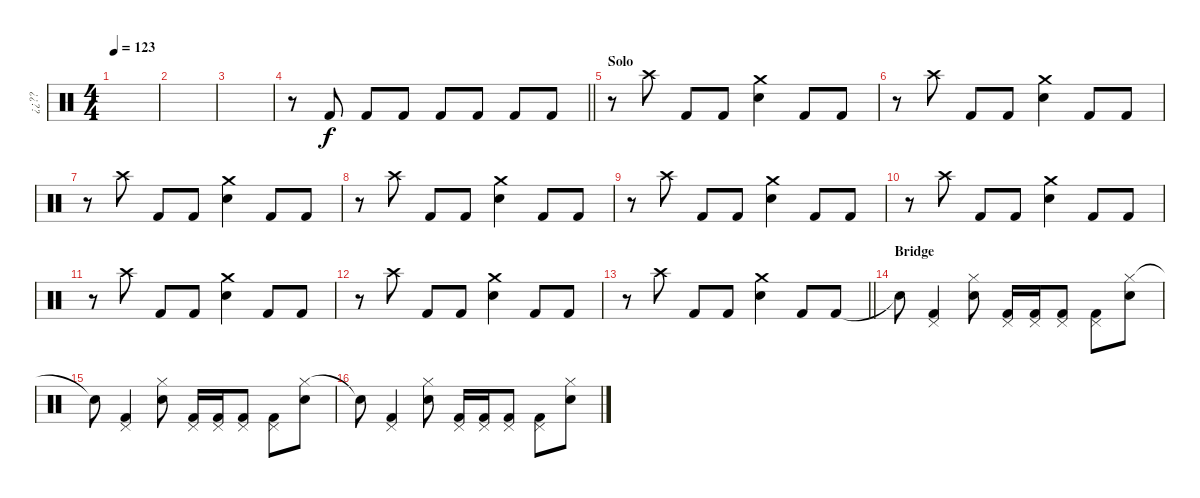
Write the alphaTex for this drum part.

\track ("¿¿??" "¿¿??") {instrument percussion}
\staff {score}
\articulation defaults
\ts (4 4)
\tempo 123
\clef neutral
\ks c
|
|
|
\barLineRight lightlight
r.8 "Kick (hit) 2".8 "Kick (hit) 2".8 "Kick (hit) 2".8 "Kick (hit) 2".8 "Kick (hit) 2".8 "Kick (hit) 2".8 "Kick (hit) 2".8 |
\section ("" "Solo")
r.8 "Crash high (hit)".8 "Kick (hit) 2".8 "Kick (hit) 2".8 ("Crash medium (hit)" "Snare (hit) 2").4 "Kick (hit) 2".8 "Kick (hit) 2".8 |
r.8 "Crash high (hit)".8 "Kick (hit) 2".8 "Kick (hit) 2".8 ("Crash medium (hit)" "Snare (hit) 2").4 "Kick (hit) 2".8 "Kick (hit) 2".8 |
r.8 "Crash high (hit)".8 "Kick (hit) 2".8 "Kick (hit) 2".8 ("Crash medium (hit)" "Snare (hit) 2").4 "Kick (hit) 2".8 "Kick (hit) 2".8 |
r.8 "Crash high (hit)".8 "Kick (hit) 2".8 "Kick (hit) 2".8 ("Crash medium (hit)" "Snare (hit) 2").4 "Kick (hit) 2".8 "Kick (hit) 2".8 |
r.8 "Crash high (hit)".8 "Kick (hit) 2".8 "Kick (hit) 2".8 ("Crash medium (hit)" "Snare (hit) 2").4 "Kick (hit) 2".8 "Kick (hit) 2".8 |
r.8 "Crash high (hit)".8 "Kick (hit) 2".8 "Kick (hit) 2".8 ("Crash medium (hit)" "Snare (hit) 2").4 "Kick (hit) 2".8 "Kick (hit) 2".8 |
r.8 "Crash high (hit)".8 "Kick (hit) 2".8 "Kick (hit) 2".8 ("Crash medium (hit)" "Snare (hit) 2").4 "Kick (hit) 2".8 "Kick (hit) 2".8 |
r.8 "Crash high (hit)".8 "Kick (hit) 2".8 "Kick (hit) 2".8 ("Crash medium (hit)" "Snare (hit) 2").4 "Kick (hit) 2".8 "Kick (hit) 2".8 |
\barLineRight lightlight
r.8 "Crash high (hit)".8 "Kick (hit) 2".8 "Kick (hit) 2".8 ("Crash medium (hit)" "Snare (hit) 2").4 "Kick (hit) 2".8 "Kick (hit) 2".8 |
\section ("" "Bridge")
"Snare (hit)"{t}.8 ("Pedal Hi-Hat (hit)" "Kick (hit) 2").4 ("Hi-Hat (closed)" "Snare (hit) 2").8 ("Pedal Hi-Hat (hit)" "Kick (hit) 2").16 ("Pedal Hi-Hat (hit)" "Kick (hit) 2").16 ("Pedal Hi-Hat (hit)" "Kick (hit) 2").8 ("Pedal Hi-Hat (hit)" "Kick (hit) 2").8 ("Hi-Hat (closed)" "Snare (hit) 2").8 |
"Snare (hit)"{t}.8 ("Pedal Hi-Hat (hit)" "Kick (hit) 2").4 ("Hi-Hat (closed)" "Snare (hit) 2").8 ("Pedal Hi-Hat (hit)" "Kick (hit) 2").16 ("Pedal Hi-Hat (hit)" "Kick (hit) 2").16 ("Pedal Hi-Hat (hit)" "Kick (hit) 2").8 ("Pedal Hi-Hat (hit)" "Kick (hit) 2").8 ("Hi-Hat (closed)" "Snare (hit) 2").8 |
"Snare (hit)"{t}.8 ("Pedal Hi-Hat (hit)" "Kick (hit) 2").4 ("Hi-Hat (closed)" "Snare (hit) 2").8 ("Pedal Hi-Hat (hit)" "Kick (hit) 2").16 ("Pedal Hi-Hat (hit)" "Kick (hit) 2").16 ("Pedal Hi-Hat (hit)" "Kick (hit) 2").8 ("Pedal Hi-Hat (hit)" "Kick (hit) 2").8 ("Hi-Hat (closed)" "Snare (hit) 2").8
